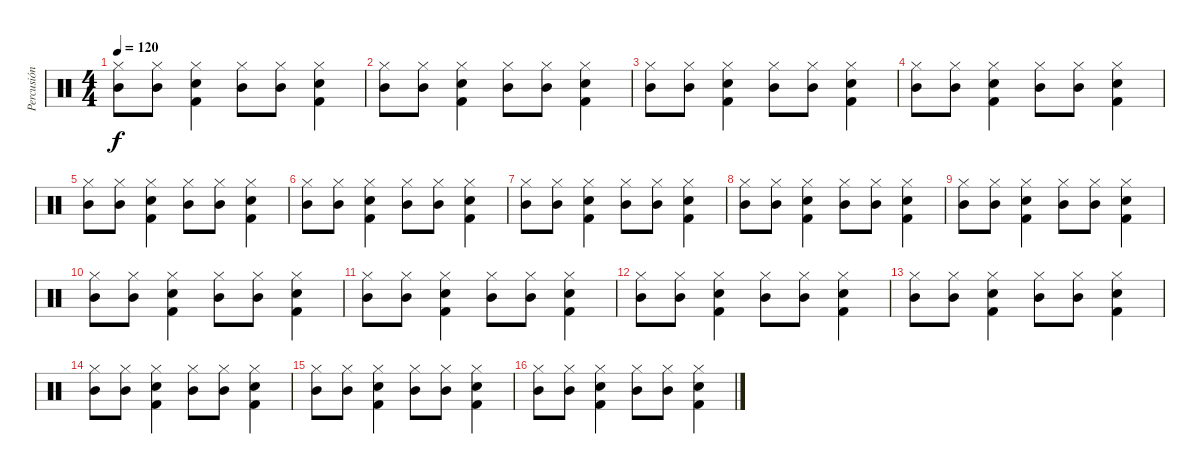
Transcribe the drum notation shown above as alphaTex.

\track ("Percusión" "Percusión") {instrument percussion}
\staff {score}
\articulation defaults
\ts (4 4)
\tempo 120
\clef neutral
\ks c
("Hi-Hat (closed)" "Mid Tom (hit)").8{dy f} ("Hi-Hat (closed)" "Mid Tom (hit)").8 ("Hi-Hat (closed)" "Snare (hit) 2" "Kick (hit) 2").4 ("Hi-Hat (closed)" "Mid Tom (hit)").8 ("Hi-Hat (closed)" "Mid Tom (hit)").8 ("Hi-Hat (closed)" "Snare (hit) 2" "Kick (hit) 2").4 |
("Hi-Hat (closed)" "Mid Tom (hit)").8 ("Hi-Hat (closed)" "Mid Tom (hit)").8 ("Hi-Hat (closed)" "Snare (hit) 2" "Kick (hit) 2").4 ("Hi-Hat (closed)" "Mid Tom (hit)").8 ("Hi-Hat (closed)" "Mid Tom (hit)").8 ("Hi-Hat (closed)" "Snare (hit) 2" "Kick (hit) 2").4 |
("Hi-Hat (closed)" "Mid Tom (hit)").8 ("Hi-Hat (closed)" "Mid Tom (hit)").8 ("Hi-Hat (closed)" "Snare (hit) 2" "Kick (hit) 2").4 ("Hi-Hat (closed)" "Mid Tom (hit)").8 ("Hi-Hat (closed)" "Mid Tom (hit)").8 ("Hi-Hat (closed)" "Snare (hit) 2" "Kick (hit) 2").4 |
("Hi-Hat (closed)" "Mid Tom (hit)").8 ("Hi-Hat (closed)" "Mid Tom (hit)").8 ("Hi-Hat (closed)" "Snare (hit) 2" "Kick (hit) 2").4 ("Hi-Hat (closed)" "Mid Tom (hit)").8 ("Hi-Hat (closed)" "Mid Tom (hit)").8 ("Hi-Hat (closed)" "Snare (hit) 2" "Kick (hit) 2").4 |
("Hi-Hat (closed)" "Mid Tom (hit)").8 ("Hi-Hat (closed)" "Mid Tom (hit)").8 ("Hi-Hat (closed)" "Snare (hit) 2" "Kick (hit) 2").4 ("Hi-Hat (closed)" "Mid Tom (hit)").8 ("Hi-Hat (closed)" "Mid Tom (hit)").8 ("Hi-Hat (closed)" "Snare (hit) 2" "Kick (hit) 2").4 |
("Hi-Hat (closed)" "Mid Tom (hit)").8 ("Hi-Hat (closed)" "Mid Tom (hit)").8 ("Hi-Hat (closed)" "Snare (hit) 2" "Kick (hit) 2").4 ("Hi-Hat (closed)" "Mid Tom (hit)").8 ("Hi-Hat (closed)" "Mid Tom (hit)").8 ("Hi-Hat (closed)" "Snare (hit) 2" "Kick (hit) 2").4 |
("Hi-Hat (closed)" "Mid Tom (hit)").8 ("Hi-Hat (closed)" "Mid Tom (hit)").8 ("Hi-Hat (closed)" "Snare (hit) 2" "Kick (hit) 2").4 ("Hi-Hat (closed)" "Mid Tom (hit)").8 ("Hi-Hat (closed)" "Mid Tom (hit)").8 ("Hi-Hat (closed)" "Snare (hit) 2" "Kick (hit) 2").4 |
("Hi-Hat (closed)" "Mid Tom (hit)").8 ("Hi-Hat (closed)" "Mid Tom (hit)").8 ("Hi-Hat (closed)" "Snare (hit) 2" "Kick (hit) 2").4 ("Hi-Hat (closed)" "Mid Tom (hit)").8 ("Hi-Hat (closed)" "Mid Tom (hit)").8 ("Hi-Hat (closed)" "Snare (hit) 2" "Kick (hit) 2").4 |
("Hi-Hat (closed)" "Mid Tom (hit)").8 ("Hi-Hat (closed)" "Mid Tom (hit)").8 ("Hi-Hat (closed)" "Snare (hit) 2" "Kick (hit) 2").4 ("Hi-Hat (closed)" "Mid Tom (hit)").8 ("Hi-Hat (closed)" "Mid Tom (hit)").8 ("Hi-Hat (closed)" "Snare (hit) 2" "Kick (hit) 2").4 |
("Hi-Hat (closed)" "Mid Tom (hit)").8 ("Hi-Hat (closed)" "Mid Tom (hit)").8 ("Hi-Hat (closed)" "Snare (hit) 2" "Kick (hit) 2").4 ("Hi-Hat (closed)" "Mid Tom (hit)").8 ("Hi-Hat (closed)" "Mid Tom (hit)").8 ("Hi-Hat (closed)" "Snare (hit) 2" "Kick (hit) 2").4 |
("Hi-Hat (closed)" "Mid Tom (hit)").8 ("Hi-Hat (closed)" "Mid Tom (hit)").8 ("Hi-Hat (closed)" "Snare (hit) 2" "Kick (hit) 2").4 ("Hi-Hat (closed)" "Mid Tom (hit)").8 ("Hi-Hat (closed)" "Mid Tom (hit)").8 ("Hi-Hat (closed)" "Snare (hit) 2" "Kick (hit) 2").4 |
("Hi-Hat (closed)" "Mid Tom (hit)").8 ("Hi-Hat (closed)" "Mid Tom (hit)").8 ("Hi-Hat (closed)" "Snare (hit) 2" "Kick (hit) 2").4 ("Hi-Hat (closed)" "Mid Tom (hit)").8 ("Hi-Hat (closed)" "Mid Tom (hit)").8 ("Hi-Hat (closed)" "Snare (hit) 2" "Kick (hit) 2").4 |
("Hi-Hat (closed)" "Mid Tom (hit)").8 ("Hi-Hat (closed)" "Mid Tom (hit)").8 ("Hi-Hat (closed)" "Snare (hit) 2" "Kick (hit) 2").4 ("Hi-Hat (closed)" "Mid Tom (hit)").8 ("Hi-Hat (closed)" "Mid Tom (hit)").8 ("Hi-Hat (closed)" "Snare (hit) 2" "Kick (hit) 2").4 |
("Hi-Hat (closed)" "Mid Tom (hit)").8 ("Hi-Hat (closed)" "Mid Tom (hit)").8 ("Hi-Hat (closed)" "Snare (hit) 2" "Kick (hit) 2").4 ("Hi-Hat (closed)" "Mid Tom (hit)").8 ("Hi-Hat (closed)" "Mid Tom (hit)").8 ("Hi-Hat (closed)" "Snare (hit) 2" "Kick (hit) 2").4 |
("Hi-Hat (closed)" "Mid Tom (hit)").8 ("Hi-Hat (closed)" "Mid Tom (hit)").8 ("Hi-Hat (closed)" "Snare (hit) 2" "Kick (hit) 2").4 ("Hi-Hat (closed)" "Mid Tom (hit)").8 ("Hi-Hat (closed)" "Mid Tom (hit)").8 ("Hi-Hat (closed)" "Snare (hit) 2" "Kick (hit) 2").4 |
("Hi-Hat (closed)" "Mid Tom (hit)").8 ("Hi-Hat (closed)" "Mid Tom (hit)").8 ("Hi-Hat (closed)" "Snare (hit) 2" "Kick (hit) 2").4 ("Hi-Hat (closed)" "Mid Tom (hit)").8 ("Hi-Hat (closed)" "Mid Tom (hit)").8 ("Hi-Hat (closed)" "Snare (hit) 2" "Kick (hit) 2").4
